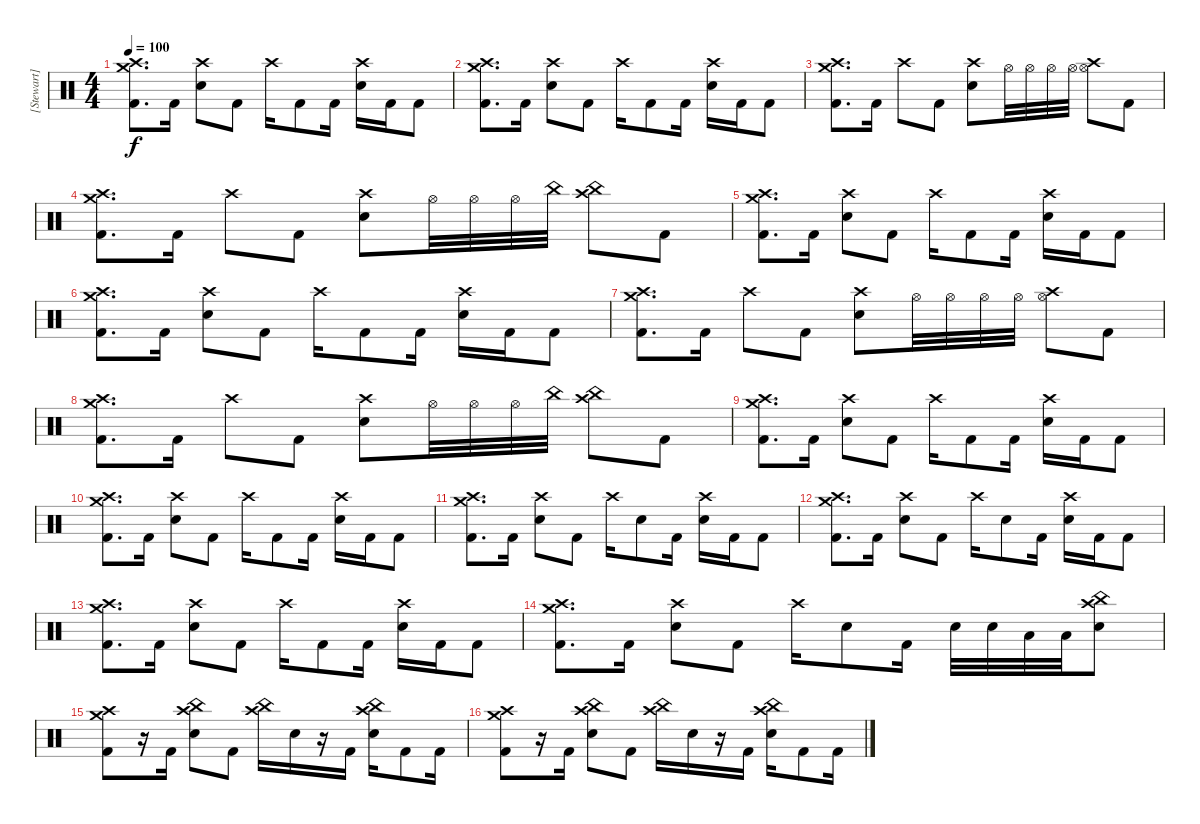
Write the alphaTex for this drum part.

\track ("[Stewart]" "[Stewart]") {instrument percussion}
\staff {score}
\articulation defaults
\ts (4 4)
\tempo 100
\clef neutral
\ks c
("Crash high (hit)" "Crash medium (hit)" "Kick (hit) 2").8{d dy f} "Kick (hit) 2".16 ("Crash high (hit)" "Electric Snare (hit)").8 "Kick (hit) 2".8 "Crash high (hit)".16 "Kick (hit) 2".8 "Kick (hit) 2".16 ("Crash high (hit)" "Electric Snare (hit)").16 "Kick (hit) 2".16 "Kick (hit) 2".8 |
("Crash high (hit)" "Crash medium (hit)" "Kick (hit) 2").8{d} "Kick (hit) 2".16 ("Crash high (hit)" "Electric Snare (hit)").8 "Kick (hit) 2".8 "Crash high (hit)".16 "Kick (hit) 2".8 "Kick (hit) 2".16 ("Crash high (hit)" "Electric Snare (hit)").16 "Kick (hit) 2".16 "Kick (hit) 2".8 |
("Crash high (hit)" "Crash medium (hit)" "Kick (hit) 2").8{d} "Kick (hit) 2".16 "Crash high (hit)".8 "Kick (hit) 2".8 ("Crash high (hit)" "Electric Snare (hit)").8 "Hi-Hat (open)".32 "Hi-Hat (open)".32 "Hi-Hat (open)".32 "Hi-Hat (open)".32 ("Hi-Hat (open)" "Crash high (hit)").8 "Kick (hit) 2".8 |
("Crash high (hit)" "Crash medium (hit)" "Kick (hit) 2").8{d} "Kick (hit) 2".16 "Crash high (hit)".8 "Kick (hit) 2".8 ("Crash high (hit)" "Electric Snare (hit)").8 "Hi-Hat (open)".32 "Hi-Hat (open)".32 "Hi-Hat (open)".32 "China (hit)".32 ("China (hit)" "Crash high (hit)").8 "Kick (hit) 2".8 |
("Crash high (hit)" "Crash medium (hit)" "Kick (hit) 2").8{d} "Kick (hit) 2".16 ("Crash high (hit)" "Electric Snare (hit)").8 "Kick (hit) 2".8 "Crash high (hit)".16 "Kick (hit) 2".8 "Kick (hit) 2".16 ("Crash high (hit)" "Electric Snare (hit)").16 "Kick (hit) 2".16 "Kick (hit) 2".8 |
("Crash high (hit)" "Crash medium (hit)" "Kick (hit) 2").8{d} "Kick (hit) 2".16 ("Crash high (hit)" "Electric Snare (hit)").8 "Kick (hit) 2".8 "Crash high (hit)".16 "Kick (hit) 2".8 "Kick (hit) 2".16 ("Crash high (hit)" "Electric Snare (hit)").16 "Kick (hit) 2".16 "Kick (hit) 2".8 |
("Crash high (hit)" "Crash medium (hit)" "Kick (hit) 2").8{d} "Kick (hit) 2".16 "Crash high (hit)".8 "Kick (hit) 2".8 ("Crash high (hit)" "Electric Snare (hit)").8 "Hi-Hat (open)".32 "Hi-Hat (open)".32 "Hi-Hat (open)".32 "Hi-Hat (open)".32 ("Hi-Hat (open)" "Crash high (hit)").8 "Kick (hit) 2".8 |
("Crash high (hit)" "Crash medium (hit)" "Kick (hit) 2").8{d} "Kick (hit) 2".16 "Crash high (hit)".8 "Kick (hit) 2".8 ("Crash high (hit)" "Electric Snare (hit)").8 "Hi-Hat (open)".32 "Hi-Hat (open)".32 "Hi-Hat (open)".32 "China (hit)".32 ("China (hit)" "Crash high (hit)").8 "Kick (hit) 2".8 |
("Crash high (hit)" "Crash medium (hit)" "Kick (hit) 2").8{d} "Kick (hit) 2".16 ("Crash high (hit)" "Electric Snare (hit)").8 "Kick (hit) 2".8 "Crash high (hit)".16 "Kick (hit) 2".8 "Kick (hit) 2".16 ("Crash high (hit)" "Electric Snare (hit)").16 "Kick (hit) 2".16 "Kick (hit) 2".8 |
("Crash high (hit)" "Crash medium (hit)" "Kick (hit) 2").8{d} "Kick (hit) 2".16 ("Crash high (hit)" "Electric Snare (hit)").8 "Kick (hit) 2".8 "Crash high (hit)".16 "Kick (hit) 2".8 "Kick (hit) 2".16 ("Crash high (hit)" "Electric Snare (hit)").16 "Kick (hit) 2".16 "Kick (hit) 2".8 |
("Crash high (hit)" "Crash medium (hit)" "Kick (hit) 2").8{d} "Kick (hit) 2".16 ("Crash high (hit)" "Electric Snare (hit)").8 "Kick (hit) 2".8 "Crash high (hit)".16 "Electric Snare (hit)".8 "Kick (hit) 2".16 ("Crash high (hit)" "Electric Snare (hit)").16 "Kick (hit) 2".16 "Kick (hit) 2".8 |
("Crash high (hit)" "Crash medium (hit)" "Kick (hit) 2").8{d} "Kick (hit) 2".16 ("Crash high (hit)" "Electric Snare (hit)").8 "Kick (hit) 2".8 "Crash high (hit)".16 "Electric Snare (hit)".8 "Kick (hit) 2".16 ("Crash high (hit)" "Electric Snare (hit)").16 "Kick (hit) 2".16 "Kick (hit) 2".8 |
("Crash high (hit)" "Crash medium (hit)" "Kick (hit) 2").8{d} "Kick (hit) 2".16 ("Crash high (hit)" "Electric Snare (hit)").8 "Kick (hit) 2".8 "Crash high (hit)".16 "Kick (hit) 2".8 "Kick (hit) 2".16 ("Crash high (hit)" "Electric Snare (hit)").16 "Kick (hit) 2".16 "Kick (hit) 2".8 |
("Crash high (hit)" "Crash medium (hit)" "Kick (hit) 2").8{d} "Kick (hit) 2".16 ("Crash high (hit)" "Electric Snare (hit)").8 "Kick (hit) 2".8 "Crash high (hit)".16 "Electric Snare (hit)".8 "Kick (hit) 2".16 "Electric Snare (hit)".32 "Electric Snare (hit)".32 "Low Tom (hit)".32 "Low Tom (hit)".32 ("Crash high (hit)" "China (hit)" "Electric Snare (hit)").8 |
("Crash high (hit)" "Crash medium (hit)" "Kick (hit) 2").8 r.16 "Kick (hit) 2".16 ("Crash high (hit)" "China (hit)" "Electric Snare (hit)").8 "Kick (hit) 2".8 ("Crash high (hit)" "China (hit)").16 "Electric Snare (hit)".16 r.16 "Kick (hit) 2".16 ("Crash high (hit)" "China (hit)" "Electric Snare (hit)").16 "Kick (hit) 2".8 "Kick (hit) 2".16 |
("Crash high (hit)" "Crash medium (hit)" "Kick (hit) 2").8 r.16 "Kick (hit) 2".16 ("Crash high (hit)" "China (hit)" "Electric Snare (hit)").8 "Kick (hit) 2".8 ("Crash high (hit)" "China (hit)").16 "Electric Snare (hit)".16 r.16 "Kick (hit) 2".16 ("Crash high (hit)" "China (hit)" "Electric Snare (hit)").16 "Kick (hit) 2".8 "Kick (hit) 2".16
